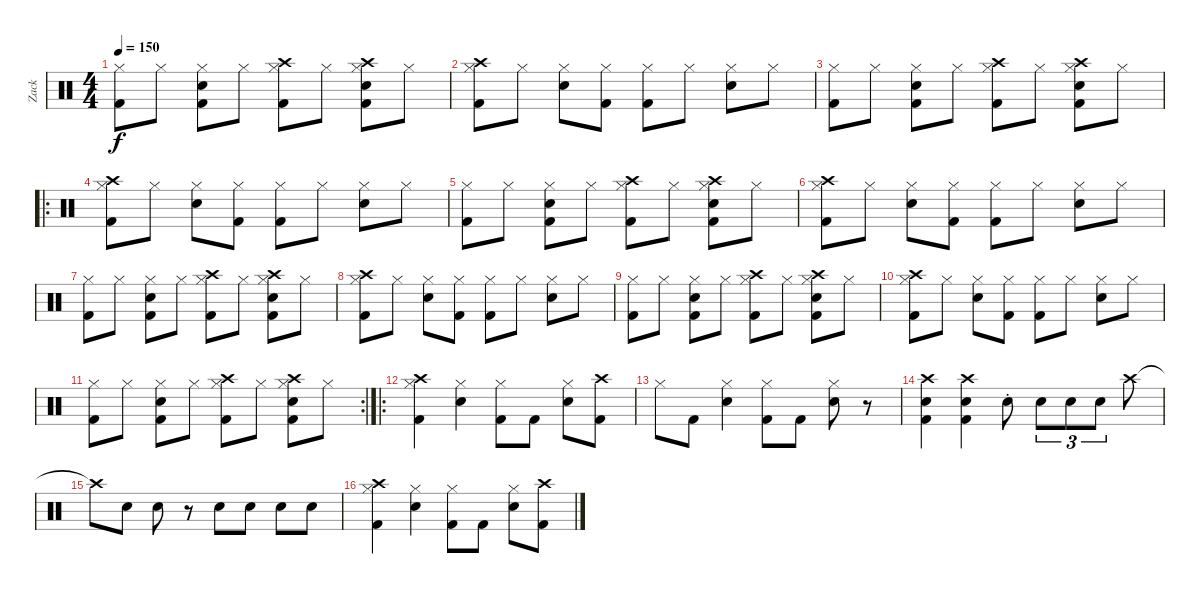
\track ("Zack" "Zack") {instrument percussion}
\staff {score}
\articulation defaults
\ts (4 4)
\tempo 150
\clef neutral
\ks c
("Hi-Hat (closed)" "Kick (hit) 2").8{dy f} "Hi-Hat (closed)".8 ("Hi-Hat (closed)" "Snare (hit) 2" "Kick (hit) 2").8 "Hi-Hat (closed)".8 ("Hi-Hat (closed)" "Crash high (hit)" "Kick (hit) 2").8 "Hi-Hat (closed)".8 ("Hi-Hat (closed)" "Crash high (hit)" "Snare (hit) 2" "Kick (hit) 2").8 "Hi-Hat (closed)".8 |
("Hi-Hat (closed)" "Crash high (hit)" "Kick (hit) 2").8 "Hi-Hat (closed)".8 ("Hi-Hat (closed)" "Snare (hit) 2").8 ("Hi-Hat (closed)" "Kick (hit) 2").8 ("Hi-Hat (closed)" "Kick (hit) 2").8 "Hi-Hat (closed)".8 ("Hi-Hat (closed)" "Snare (hit) 2").8 "Hi-Hat (closed)".8 |
("Hi-Hat (closed)" "Kick (hit) 2").8 "Hi-Hat (closed)".8 ("Hi-Hat (closed)" "Snare (hit) 2" "Kick (hit) 2").8 "Hi-Hat (closed)".8 ("Hi-Hat (closed)" "Crash high (hit)" "Kick (hit) 2").8 "Hi-Hat (closed)".8 ("Hi-Hat (closed)" "Crash high (hit)" "Snare (hit) 2" "Kick (hit) 2").8 "Hi-Hat (closed)".8 |
\ro
("Hi-Hat (closed)" "Crash high (hit)" "Kick (hit) 2").8 "Hi-Hat (closed)".8 ("Hi-Hat (closed)" "Snare (hit) 2").8 ("Hi-Hat (closed)" "Kick (hit) 2").8 ("Hi-Hat (closed)" "Kick (hit) 2").8 "Hi-Hat (closed)".8 ("Hi-Hat (closed)" "Snare (hit) 2").8 "Hi-Hat (closed)".8 |
("Hi-Hat (closed)" "Kick (hit) 2").8 "Hi-Hat (closed)".8 ("Hi-Hat (closed)" "Snare (hit) 2" "Kick (hit) 2").8 "Hi-Hat (closed)".8 ("Hi-Hat (closed)" "Crash high (hit)" "Kick (hit) 2").8 "Hi-Hat (closed)".8 ("Hi-Hat (closed)" "Crash high (hit)" "Snare (hit) 2" "Kick (hit) 2").8 "Hi-Hat (closed)".8 |
("Hi-Hat (closed)" "Crash high (hit)" "Kick (hit) 2").8 "Hi-Hat (closed)".8 ("Hi-Hat (closed)" "Snare (hit) 2").8 ("Hi-Hat (closed)" "Kick (hit) 2").8 ("Hi-Hat (closed)" "Kick (hit) 2").8 "Hi-Hat (closed)".8 ("Hi-Hat (closed)" "Snare (hit) 2").8 "Hi-Hat (closed)".8 |
("Hi-Hat (closed)" "Kick (hit) 2").8 "Hi-Hat (closed)".8 ("Hi-Hat (closed)" "Snare (hit) 2" "Kick (hit) 2").8 "Hi-Hat (closed)".8 ("Hi-Hat (closed)" "Crash high (hit)" "Kick (hit) 2").8 "Hi-Hat (closed)".8 ("Hi-Hat (closed)" "Crash high (hit)" "Snare (hit) 2" "Kick (hit) 2").8 "Hi-Hat (closed)".8 |
("Hi-Hat (closed)" "Crash high (hit)" "Kick (hit) 2").8 "Hi-Hat (closed)".8 ("Hi-Hat (closed)" "Snare (hit) 2").8 ("Hi-Hat (closed)" "Kick (hit) 2").8 ("Hi-Hat (closed)" "Kick (hit) 2").8 "Hi-Hat (closed)".8 ("Hi-Hat (closed)" "Snare (hit) 2").8 "Hi-Hat (closed)".8 |
("Hi-Hat (closed)" "Kick (hit) 2").8 "Hi-Hat (closed)".8 ("Hi-Hat (closed)" "Snare (hit) 2" "Kick (hit) 2").8 "Hi-Hat (closed)".8 ("Hi-Hat (closed)" "Crash high (hit)" "Kick (hit) 2").8 "Hi-Hat (closed)".8 ("Hi-Hat (closed)" "Crash high (hit)" "Snare (hit) 2" "Kick (hit) 2").8 "Hi-Hat (closed)".8 |
("Hi-Hat (closed)" "Crash high (hit)" "Kick (hit) 2").8 "Hi-Hat (closed)".8 ("Hi-Hat (closed)" "Snare (hit) 2").8 ("Hi-Hat (closed)" "Kick (hit) 2").8 ("Hi-Hat (closed)" "Kick (hit) 2").8 "Hi-Hat (closed)".8 ("Hi-Hat (closed)" "Snare (hit) 2").8 "Hi-Hat (closed)".8 |
\rc 2
("Hi-Hat (closed)" "Kick (hit) 2").8 "Hi-Hat (closed)".8 ("Hi-Hat (closed)" "Snare (hit) 2" "Kick (hit) 2").8 "Hi-Hat (closed)".8 ("Hi-Hat (closed)" "Crash high (hit)" "Kick (hit) 2").8 "Hi-Hat (closed)".8 ("Hi-Hat (closed)" "Crash high (hit)" "Snare (hit) 2" "Kick (hit) 2").8 "Hi-Hat (closed)".8 |
\ro
("Hi-Hat (closed)" "Crash high (hit)" "Kick (hit) 2").4 ("Hi-Hat (closed)" "Snare (hit) 2").4 ("Hi-Hat (closed)" "Kick (hit) 2").8 "Kick (hit) 2".8 ("Hi-Hat (closed)" "Snare (hit) 2").8 ("Crash high (hit)" "Kick (hit) 2").8 |
"Hi-Hat (closed)".8 "Kick (hit) 2".8 ("Hi-Hat (closed)" "Snare (hit) 2").4 ("Hi-Hat (closed)" "Kick (hit) 2").8 "Kick (hit) 2".8 ("Hi-Hat (closed)" "Snare (hit) 2").8 r.8 |
("Crash high (hit)" "Snare (hit) 2" "Kick (hit) 2").4 ("Crash high (hit)" "Snare (hit) 2" "Kick (hit) 2").4 "Snare (hit) 2"{st}.8 "Snare (hit) 2".8{tu (3 2)} "Snare (hit) 2".8{tu (3 2)} "Snare (hit) 2".8{tu (3 2)} "Crash high (hit)".8 |
"Crash high (hit)"{t}.8 "Snare (hit) 2".8 "Snare (hit) 2".8 r.8 "Snare (hit) 2".8 "Snare (hit) 2".8 "Snare (hit) 2".8 "Snare (hit) 2".8 |
("Hi-Hat (closed)" "Crash high (hit)" "Kick (hit) 2").4 ("Hi-Hat (closed)" "Snare (hit) 2").4 ("Hi-Hat (closed)" "Kick (hit) 2").8 "Kick (hit) 2".8 ("Hi-Hat (closed)" "Snare (hit) 2").8 ("Crash high (hit)" "Kick (hit) 2").8
